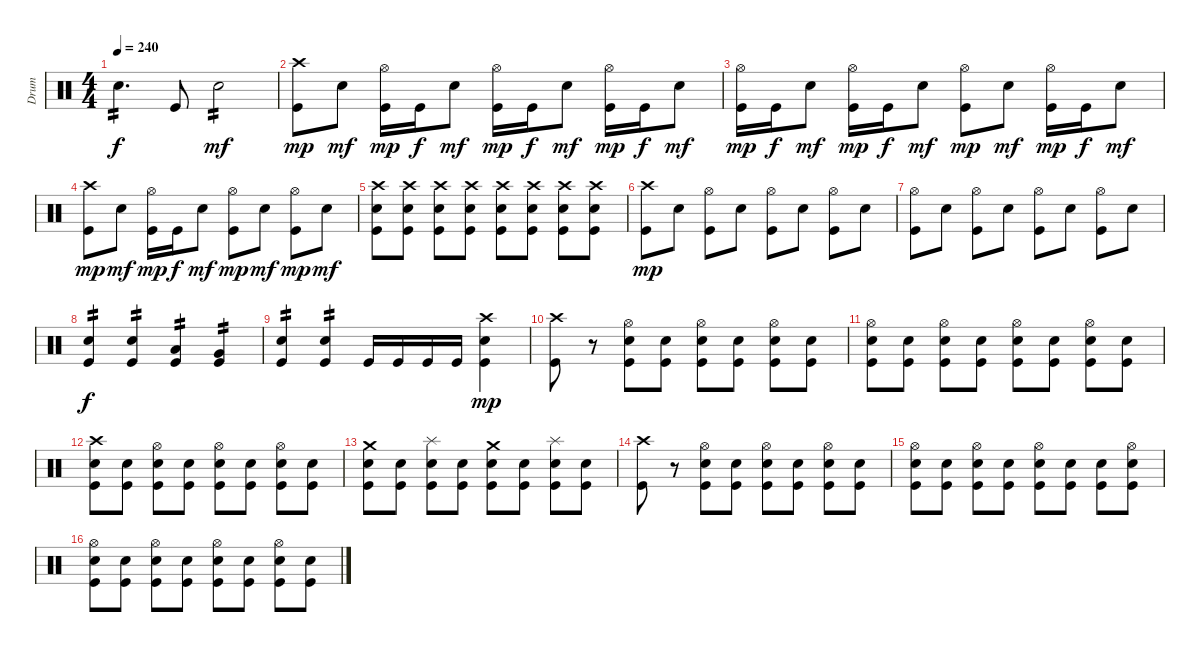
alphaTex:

\track ("Drum" "Drum") {instrument percussion}
\staff {score}
\articulation defaults
\ts (4 4)
\tempo 240
\clef neutral
\ks c "Electric Snare (hit)".4{d tp 2 dy f} "Kick (hit)".8 "Electric Snare (hit)".2{tp 2 dy mf}
|
("Crash high (hit)" "Kick (hit)").8{dy mp} "Electric Snare (hit)".8{dy mf} ("Hi-Hat (open)" "Kick (hit)").16{dy mp} "Kick (hit)".16{dy f} "Electric Snare (hit)".8{dy mf} ("Hi-Hat (open)" "Kick (hit)").16{dy mp} "Kick (hit)".16{dy f} "Electric Snare (hit)".8{dy mf} ("Hi-Hat (open)" "Kick (hit)").16{dy mp} "Kick (hit)".16{dy f} "Electric Snare (hit)".8{dy mf} |
("Hi-Hat (open)" "Kick (hit)").16{dy mp} "Kick (hit)".16{dy f} "Electric Snare (hit)".8{dy mf} ("Hi-Hat (open)" "Kick (hit)").16{dy mp} "Kick (hit)".16{dy f} "Electric Snare (hit)".8{dy mf} ("Hi-Hat (open)" "Kick (hit)").8{dy mp} "Electric Snare (hit)".8{dy mf} ("Hi-Hat (open)" "Kick (hit)").16{dy mp} "Kick (hit)".16{dy f} "Electric Snare (hit)".8{dy mf} |
("Crash high (hit)" "Kick (hit)").8{dy mp} "Electric Snare (hit)".8{dy mf} ("Hi-Hat (open)" "Kick (hit)").16{dy mp} "Kick (hit)".16{dy f} "Electric Snare (hit)".8{dy mf} ("Hi-Hat (open)" "Kick (hit)").8{dy mp} "Electric Snare (hit)".8{dy mf} ("Hi-Hat (open)" "Kick (hit)").8{dy mp} "Electric Snare (hit)".8{dy mf} |
("Crash high (hit)" "Electric Snare (hit)" "Kick (hit)").8 ("Crash high (hit)" "Electric Snare (hit)" "Kick (hit)").8 ("Crash high (hit)" "Electric Snare (hit)" "Kick (hit)").8 ("Crash high (hit)" "Electric Snare (hit)" "Kick (hit)").8 ("Crash high (hit)" "Electric Snare (hit)" "Kick (hit)").8 ("Crash high (hit)" "Electric Snare (hit)" "Kick (hit)").8 ("Crash high (hit)" "Electric Snare (hit)" "Kick (hit)").8 ("Crash high (hit)" "Electric Snare (hit)" "Kick (hit)").8 |
("Crash high (hit)" "Kick (hit)").8{dy mp} "Electric Snare (hit)".8 ("Hi-Hat (open)" "Kick (hit)").8 "Electric Snare (hit)".8 ("Hi-Hat (open)" "Kick (hit)").8 "Electric Snare (hit)".8 ("Hi-Hat (open)" "Kick (hit)").8 "Electric Snare (hit)".8 |
("Hi-Hat (open)" "Kick (hit)").8 "Electric Snare (hit)".8 ("Hi-Hat (open)" "Kick (hit)").8 "Electric Snare (hit)".8 ("Hi-Hat (open)" "Kick (hit)").8 "Electric Snare (hit)".8 ("Hi-Hat (open)" "Kick (hit)").8 "Electric Snare (hit)".8 |
("Electric Snare (hit)" "Kick (hit)").4{tp 2 dy f} ("Electric Snare (hit)" "Kick (hit)").4{tp 2} ("Low Tom (hit)" "Kick (hit)").4{tp 2} ("Very Low Tom (hit)" "Kick (hit)").4{tp 2} |
("Electric Snare (hit)" "Kick (hit)").4{tp 2} ("Electric Snare (hit)" "Kick (hit)").4{tp 2} "Kick (hit)".16 "Kick (hit)".16 "Kick (hit)".16 "Kick (hit)".16 ("Crash high (hit)" "Electric Snare (hit)" "Kick (hit)").4{dy mp} |
("Crash high (hit)" "Kick (hit)").8 r.8 ("Hi-Hat (open)" "Electric Snare (hit)" "Kick (hit)").8 ("Electric Snare (hit)" "Kick (hit)").8 ("Hi-Hat (open)" "Electric Snare (hit)" "Kick (hit)").8 ("Electric Snare (hit)" "Kick (hit)").8 ("Hi-Hat (open)" "Electric Snare (hit)" "Kick (hit)").8 ("Electric Snare (hit)" "Kick (hit)").8 |
("Hi-Hat (open)" "Electric Snare (hit)" "Kick (hit)").8 ("Electric Snare (hit)" "Kick (hit)").8 ("Hi-Hat (open)" "Electric Snare (hit)" "Kick (hit)").8 ("Electric Snare (hit)" "Kick (hit)").8 ("Hi-Hat (open)" "Electric Snare (hit)" "Kick (hit)").8 ("Electric Snare (hit)" "Kick (hit)").8 ("Hi-Hat (open)" "Electric Snare (hit)" "Kick (hit)").8 ("Electric Snare (hit)" "Kick (hit)").8 |
("Crash high (hit)" "Electric Snare (hit)" "Kick (hit)").8 ("Electric Snare (hit)" "Kick (hit)").8 ("Hi-Hat (open)" "Electric Snare (hit)" "Kick (hit)").8 ("Electric Snare (hit)" "Kick (hit)").8 ("Hi-Hat (open)" "Electric Snare (hit)" "Kick (hit)").8 ("Electric Snare (hit)" "Kick (hit)").8 ("Hi-Hat (open)" "Electric Snare (hit)" "Kick (hit)").8 ("Electric Snare (hit)" "Kick (hit)").8 |
("Crash medium (hit)" "Electric Snare (hit)" "Kick (hit)").8 ("Electric Snare (hit)" "Kick (hit)").8 ("Splash (hit)" "Electric Snare (hit)" "Kick (hit)").8 ("Electric Snare (hit)" "Kick (hit)").8 ("Crash medium (hit)" "Electric Snare (hit)" "Kick (hit)").8 ("Electric Snare (hit)" "Kick (hit)").8 ("Splash (hit)" "Electric Snare (hit)" "Kick (hit)").8 ("Electric Snare (hit)" "Kick (hit)").8 |
("Crash high (hit)" "Kick (hit)").8 r.8 ("Hi-Hat (open)" "Electric Snare (hit)" "Kick (hit)").8 ("Electric Snare (hit)" "Kick (hit)").8 ("Hi-Hat (open)" "Electric Snare (hit)" "Kick (hit)").8 ("Electric Snare (hit)" "Kick (hit)").8 ("Hi-Hat (open)" "Electric Snare (hit)" "Kick (hit)").8 ("Electric Snare (hit)" "Kick (hit)").8 |
("Hi-Hat (open)" "Electric Snare (hit)" "Kick (hit)").8 ("Electric Snare (hit)" "Kick (hit)").8 ("Hi-Hat (open)" "Electric Snare (hit)" "Kick (hit)").8 ("Electric Snare (hit)" "Kick (hit)").8 ("Hi-Hat (open)" "Electric Snare (hit)" "Kick (hit)").8 ("Electric Snare (hit)" "Kick (hit)").8 ("Electric Snare (hit)" "Kick (hit)").8 ("Hi-Hat (open)" "Electric Snare (hit)" "Kick (hit)").8 |
("Hi-Hat (open)" "Electric Snare (hit)" "Kick (hit)").8 ("Electric Snare (hit)" "Kick (hit)").8 ("Hi-Hat (open)" "Electric Snare (hit)" "Kick (hit)").8 ("Electric Snare (hit)" "Kick (hit)").8 ("Hi-Hat (open)" "Electric Snare (hit)" "Kick (hit)").8 ("Electric Snare (hit)" "Kick (hit)").8 ("Hi-Hat (open)" "Electric Snare (hit)" "Kick (hit)").8 ("Electric Snare (hit)" "Kick (hit)").8
